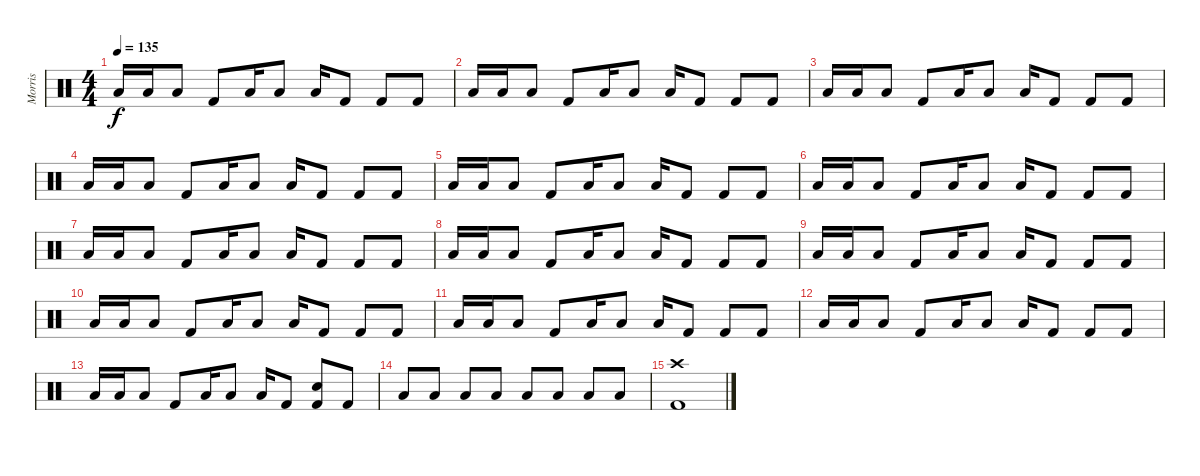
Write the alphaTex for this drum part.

\track ("Morris" "Morris") {instrument percussion}
\staff {score}
\articulation defaults
\ts (4 4)
\tempo 135
\clef neutral
\ks c "Low Tom (hit)".16{dy f} "Low Tom (hit)".16 "Low Tom (hit)".8 "Kick (hit) 2".8 "Low Tom (hit)".16 "Low Tom (hit)".8 "Low Tom (hit)".16 "Kick (hit) 2".8 "Kick (hit) 2".8 "Kick (hit) 2".8
|
"Low Tom (hit)".16 "Low Tom (hit)".16 "Low Tom (hit)".8 "Kick (hit) 2".8 "Low Tom (hit)".16 "Low Tom (hit)".8 "Low Tom (hit)".16 "Kick (hit) 2".8 "Kick (hit) 2".8 "Kick (hit) 2".8 |
"Low Tom (hit)".16 "Low Tom (hit)".16 "Low Tom (hit)".8 "Kick (hit) 2".8 "Low Tom (hit)".16 "Low Tom (hit)".8 "Low Tom (hit)".16 "Kick (hit) 2".8 "Kick (hit) 2".8 "Kick (hit) 2".8 |
"Low Tom (hit)".16 "Low Tom (hit)".16 "Low Tom (hit)".8 "Kick (hit) 2".8 "Low Tom (hit)".16 "Low Tom (hit)".8 "Low Tom (hit)".16 "Kick (hit) 2".8 "Kick (hit) 2".8 "Kick (hit) 2".8 |
"Low Tom (hit)".16 "Low Tom (hit)".16 "Low Tom (hit)".8 "Kick (hit) 2".8 "Low Tom (hit)".16 "Low Tom (hit)".8 "Low Tom (hit)".16 "Kick (hit) 2".8 "Kick (hit) 2".8 "Kick (hit) 2".8 |
"Low Tom (hit)".16 "Low Tom (hit)".16 "Low Tom (hit)".8 "Kick (hit) 2".8 "Low Tom (hit)".16 "Low Tom (hit)".8 "Low Tom (hit)".16 "Kick (hit) 2".8 "Kick (hit) 2".8 "Kick (hit) 2".8 |
"Low Tom (hit)".16 "Low Tom (hit)".16 "Low Tom (hit)".8 "Kick (hit) 2".8 "Low Tom (hit)".16 "Low Tom (hit)".8 "Low Tom (hit)".16 "Kick (hit) 2".8 "Kick (hit) 2".8 "Kick (hit) 2".8 |
"Low Tom (hit)".16 "Low Tom (hit)".16 "Low Tom (hit)".8 "Kick (hit) 2".8 "Low Tom (hit)".16 "Low Tom (hit)".8 "Low Tom (hit)".16 "Kick (hit) 2".8 "Kick (hit) 2".8 "Kick (hit) 2".8 |
"Low Tom (hit)".16 "Low Tom (hit)".16 "Low Tom (hit)".8 "Kick (hit) 2".8 "Low Tom (hit)".16 "Low Tom (hit)".8 "Low Tom (hit)".16 "Kick (hit) 2".8 "Kick (hit) 2".8 "Kick (hit) 2".8 |
"Low Tom (hit)".16 "Low Tom (hit)".16 "Low Tom (hit)".8 "Kick (hit) 2".8 "Low Tom (hit)".16 "Low Tom (hit)".8 "Low Tom (hit)".16 "Kick (hit) 2".8 "Kick (hit) 2".8 "Kick (hit) 2".8 |
"Low Tom (hit)".16 "Low Tom (hit)".16 "Low Tom (hit)".8 "Kick (hit) 2".8 "Low Tom (hit)".16 "Low Tom (hit)".8 "Low Tom (hit)".16 "Kick (hit) 2".8 "Kick (hit) 2".8 "Kick (hit) 2".8 |
"Low Tom (hit)".16 "Low Tom (hit)".16 "Low Tom (hit)".8 "Kick (hit) 2".8 "Low Tom (hit)".16 "Low Tom (hit)".8 "Low Tom (hit)".16 "Kick (hit) 2".8 "Kick (hit) 2".8 "Kick (hit) 2".8 |
"Low Tom (hit)".16 "Low Tom (hit)".16 "Low Tom (hit)".8 "Kick (hit) 2".8 "Low Tom (hit)".16 "Low Tom (hit)".8 "Low Tom (hit)".16 "Kick (hit) 2".8 ("Electric Snare (hit)" "Kick (hit) 2").8 "Kick (hit) 2".8 |
"Low Tom (hit)".8 "Low Tom (hit)".8 "Low Tom (hit)".8 "Low Tom (hit)".8 "Low Tom (hit)".8 "Low Tom (hit)".8 "Low Tom (hit)".8 "Low Tom (hit)".8 |
("Crash high (hit)" "Kick (hit) 2").1
